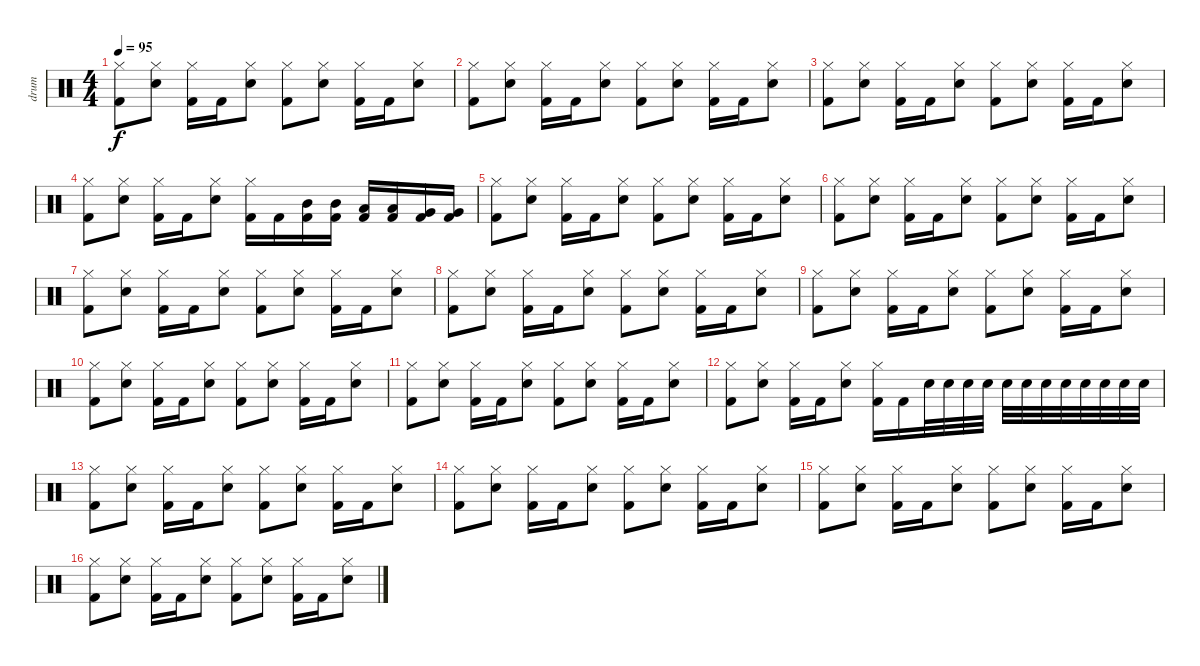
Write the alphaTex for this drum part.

\track ("drum" "drum") {instrument percussion}
\staff {score}
\articulation defaults
\ts (4 4)
\tempo 95
\clef neutral
\ks c
("Hi-Hat (closed)" "Kick (hit) 2").8{dy f} ("Hi-Hat (closed)" "Snare (hit) 2").8 ("Hi-Hat (closed)" "Kick (hit) 2").16 "Kick (hit) 2".16 ("Hi-Hat (closed)" "Snare (hit) 2").8 ("Hi-Hat (closed)" "Kick (hit) 2").8 ("Hi-Hat (closed)" "Snare (hit) 2").8 ("Hi-Hat (closed)" "Kick (hit) 2").16 "Kick (hit) 2".16 ("Hi-Hat (closed)" "Snare (hit) 2").8 |
("Hi-Hat (closed)" "Kick (hit) 2").8 ("Hi-Hat (closed)" "Snare (hit) 2").8 ("Hi-Hat (closed)" "Kick (hit) 2").16 "Kick (hit) 2".16 ("Hi-Hat (closed)" "Snare (hit) 2").8 ("Hi-Hat (closed)" "Kick (hit) 2").8 ("Hi-Hat (closed)" "Snare (hit) 2").8 ("Hi-Hat (closed)" "Kick (hit) 2").16 "Kick (hit) 2".16 ("Hi-Hat (closed)" "Snare (hit) 2").8 |
("Hi-Hat (closed)" "Kick (hit) 2").8 ("Hi-Hat (closed)" "Snare (hit) 2").8 ("Hi-Hat (closed)" "Kick (hit) 2").16 "Kick (hit) 2".16 ("Hi-Hat (closed)" "Snare (hit) 2").8 ("Hi-Hat (closed)" "Kick (hit) 2").8 ("Hi-Hat (closed)" "Snare (hit) 2").8 ("Hi-Hat (closed)" "Kick (hit) 2").16 "Kick (hit) 2".16 ("Hi-Hat (closed)" "Snare (hit) 2").8 |
("Hi-Hat (closed)" "Kick (hit) 2").8 ("Hi-Hat (closed)" "Snare (hit) 2").8 ("Hi-Hat (closed)" "Kick (hit) 2").16 "Kick (hit) 2".16 ("Hi-Hat (closed)" "Snare (hit) 2").8 ("Hi-Hat (closed)" "Kick (hit) 2").16 "Kick (hit) 2".16 ("Mid Tom (hit)" "Kick (hit) 2").16 ("Mid Tom (hit)" "Kick (hit) 2").16 ("Low Tom (hit)" "Kick (hit) 2").16 ("Low Tom (hit)" "Kick (hit) 2").16 ("Very Low Tom (hit)" "Kick (hit) 2").16 ("Very Low Tom (hit)" "Kick (hit) 2").16 |
("Hi-Hat (closed)" "Kick (hit) 2").8 ("Hi-Hat (closed)" "Snare (hit) 2").8 ("Hi-Hat (closed)" "Kick (hit) 2").16 "Kick (hit) 2".16 ("Hi-Hat (closed)" "Snare (hit) 2").8 ("Hi-Hat (closed)" "Kick (hit) 2").8 ("Hi-Hat (closed)" "Snare (hit) 2").8 ("Hi-Hat (closed)" "Kick (hit) 2").16 "Kick (hit) 2".16 ("Hi-Hat (closed)" "Snare (hit) 2").8 |
("Hi-Hat (closed)" "Kick (hit) 2").8 ("Hi-Hat (closed)" "Snare (hit) 2").8 ("Hi-Hat (closed)" "Kick (hit) 2").16 "Kick (hit) 2".16 ("Hi-Hat (closed)" "Snare (hit) 2").8 ("Hi-Hat (closed)" "Kick (hit) 2").8 ("Hi-Hat (closed)" "Snare (hit) 2").8 ("Hi-Hat (closed)" "Kick (hit) 2").16 "Kick (hit) 2".16 ("Hi-Hat (closed)" "Snare (hit) 2").8 |
("Hi-Hat (closed)" "Kick (hit) 2").8 ("Hi-Hat (closed)" "Snare (hit) 2").8 ("Hi-Hat (closed)" "Kick (hit) 2").16 "Kick (hit) 2".16 ("Hi-Hat (closed)" "Snare (hit) 2").8 ("Hi-Hat (closed)" "Kick (hit) 2").8 ("Hi-Hat (closed)" "Snare (hit) 2").8 ("Hi-Hat (closed)" "Kick (hit) 2").16 "Kick (hit) 2".16 ("Hi-Hat (closed)" "Snare (hit) 2").8 |
("Hi-Hat (closed)" "Kick (hit) 2").8 ("Hi-Hat (closed)" "Snare (hit) 2").8 ("Hi-Hat (closed)" "Kick (hit) 2").16 "Kick (hit) 2".16 ("Hi-Hat (closed)" "Snare (hit) 2").8 ("Hi-Hat (closed)" "Kick (hit) 2").8 ("Hi-Hat (closed)" "Snare (hit) 2").8 ("Hi-Hat (closed)" "Kick (hit) 2").16 "Kick (hit) 2".16 ("Hi-Hat (closed)" "Snare (hit) 2").8 |
("Hi-Hat (closed)" "Kick (hit) 2").8 ("Hi-Hat (closed)" "Snare (hit) 2").8 ("Hi-Hat (closed)" "Kick (hit) 2").16 "Kick (hit) 2".16 ("Hi-Hat (closed)" "Snare (hit) 2").8 ("Hi-Hat (closed)" "Kick (hit) 2").8 ("Hi-Hat (closed)" "Snare (hit) 2").8 ("Hi-Hat (closed)" "Kick (hit) 2").16 "Kick (hit) 2".16 ("Hi-Hat (closed)" "Snare (hit) 2").8 |
("Hi-Hat (closed)" "Kick (hit) 2").8 ("Hi-Hat (closed)" "Snare (hit) 2").8 ("Hi-Hat (closed)" "Kick (hit) 2").16 "Kick (hit) 2".16 ("Hi-Hat (closed)" "Snare (hit) 2").8 ("Hi-Hat (closed)" "Kick (hit) 2").8 ("Hi-Hat (closed)" "Snare (hit) 2").8 ("Hi-Hat (closed)" "Kick (hit) 2").16 "Kick (hit) 2".16 ("Hi-Hat (closed)" "Snare (hit) 2").8 |
("Hi-Hat (closed)" "Kick (hit) 2").8 ("Hi-Hat (closed)" "Snare (hit) 2").8 ("Hi-Hat (closed)" "Kick (hit) 2").16 "Kick (hit) 2".16 ("Hi-Hat (closed)" "Snare (hit) 2").8 ("Hi-Hat (closed)" "Kick (hit) 2").8 ("Hi-Hat (closed)" "Snare (hit) 2").8 ("Hi-Hat (closed)" "Kick (hit) 2").16 "Kick (hit) 2".16 ("Hi-Hat (closed)" "Snare (hit) 2").8 |
("Hi-Hat (closed)" "Kick (hit) 2").8 ("Hi-Hat (closed)" "Snare (hit) 2").8 ("Hi-Hat (closed)" "Kick (hit) 2").16 "Kick (hit) 2".16 ("Hi-Hat (closed)" "Snare (hit) 2").8 ("Hi-Hat (closed)" "Kick (hit) 2").16 "Kick (hit) 2".16 "Snare (hit) 2".32 "Snare (hit) 2".32 "Snare (hit) 2".32 "Snare (hit) 2".32 "Snare (hit) 2".32 "Snare (hit) 2".32 "Snare (hit) 2".32 "Snare (hit) 2".32 "Snare (hit) 2".32 "Snare (hit) 2".32 "Snare (hit) 2".32 "Snare (hit) 2".32 |
("Hi-Hat (closed)" "Kick (hit) 2").8 ("Hi-Hat (closed)" "Snare (hit) 2").8 ("Hi-Hat (closed)" "Kick (hit) 2").16 "Kick (hit) 2".16 ("Hi-Hat (closed)" "Snare (hit) 2").8 ("Hi-Hat (closed)" "Kick (hit) 2").8 ("Hi-Hat (closed)" "Snare (hit) 2").8 ("Hi-Hat (closed)" "Kick (hit) 2").16 "Kick (hit) 2".16 ("Hi-Hat (closed)" "Snare (hit) 2").8 |
("Hi-Hat (closed)" "Kick (hit) 2").8 ("Hi-Hat (closed)" "Snare (hit) 2").8 ("Hi-Hat (closed)" "Kick (hit) 2").16 "Kick (hit) 2".16 ("Hi-Hat (closed)" "Snare (hit) 2").8 ("Hi-Hat (closed)" "Kick (hit) 2").8 ("Hi-Hat (closed)" "Snare (hit) 2").8 ("Hi-Hat (closed)" "Kick (hit) 2").16 "Kick (hit) 2".16 ("Hi-Hat (closed)" "Snare (hit) 2").8 |
("Hi-Hat (closed)" "Kick (hit) 2").8 ("Hi-Hat (closed)" "Snare (hit) 2").8 ("Hi-Hat (closed)" "Kick (hit) 2").16 "Kick (hit) 2".16 ("Hi-Hat (closed)" "Snare (hit) 2").8 ("Hi-Hat (closed)" "Kick (hit) 2").8 ("Hi-Hat (closed)" "Snare (hit) 2").8 ("Hi-Hat (closed)" "Kick (hit) 2").16 "Kick (hit) 2".16 ("Hi-Hat (closed)" "Snare (hit) 2").8 |
("Hi-Hat (closed)" "Kick (hit) 2").8 ("Hi-Hat (closed)" "Snare (hit) 2").8 ("Hi-Hat (closed)" "Kick (hit) 2").16 "Kick (hit) 2".16 ("Hi-Hat (closed)" "Snare (hit) 2").8 ("Hi-Hat (closed)" "Kick (hit) 2").8 ("Hi-Hat (closed)" "Snare (hit) 2").8 ("Hi-Hat (closed)" "Kick (hit) 2").16 "Kick (hit) 2".16 ("Hi-Hat (closed)" "Snare (hit) 2").8
